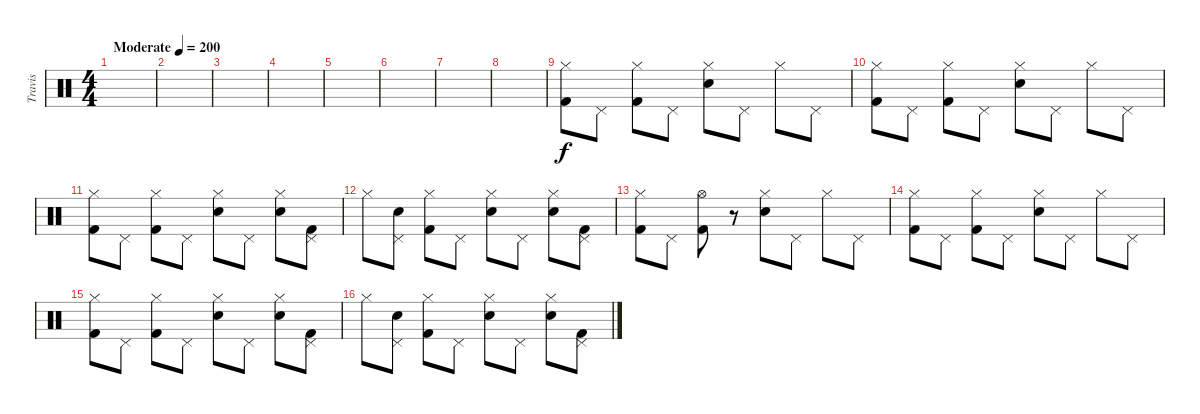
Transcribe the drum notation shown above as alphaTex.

\track ("Travis" "Travis") {instrument percussion}
\staff {score}
\articulation defaults
\ts (4 4)
\tempo (200 "Moderate")
\clef neutral
\ks c
|
|
|
|
|
|
|
|
("Kick (hit) 2" "Hi-Hat (closed)").8 "Pedal Hi-Hat (hit)".8 ("Kick (hit) 2" "Hi-Hat (closed)").8 "Pedal Hi-Hat (hit)".8 ("Snare (hit) 2" "Hi-Hat (closed)").8 "Pedal Hi-Hat (hit)".8 "Hi-Hat (closed)".8 "Pedal Hi-Hat (hit)".8 |
("Kick (hit) 2" "Hi-Hat (closed)").8 "Pedal Hi-Hat (hit)".8 ("Kick (hit) 2" "Hi-Hat (closed)").8 "Pedal Hi-Hat (hit)".8 ("Snare (hit) 2" "Hi-Hat (closed)").8 "Pedal Hi-Hat (hit)".8 "Hi-Hat (closed)".8 "Pedal Hi-Hat (hit)".8 |
("Kick (hit) 2" "Hi-Hat (closed)").8 "Pedal Hi-Hat (hit)".8 ("Kick (hit) 2" "Hi-Hat (closed)").8 "Pedal Hi-Hat (hit)".8 ("Snare (hit) 2" "Hi-Hat (closed)").8 "Pedal Hi-Hat (hit)".8 ("Snare (hit) 2" "Hi-Hat (closed)").8 ("Kick (hit) 2" "Pedal Hi-Hat (hit)").8 |
"Hi-Hat (closed)".8 ("Snare (hit) 2" "Pedal Hi-Hat (hit)").8 ("Kick (hit) 2" "Hi-Hat (closed)").8 "Pedal Hi-Hat (hit)".8 ("Snare (hit) 2" "Hi-Hat (closed)").8 "Pedal Hi-Hat (hit)".8 ("Snare (hit) 2" "Hi-Hat (closed)").8 ("Kick (hit) 2" "Pedal Hi-Hat (hit)").8 |
("Kick (hit) 2" "Hi-Hat (closed)").8 "Pedal Hi-Hat (hit)".8 ("Kick (hit) 2" "Hi-Hat (open)").8 r.8 ("Snare (hit) 2" "Hi-Hat (closed)").8 "Pedal Hi-Hat (hit)".8 "Hi-Hat (closed)".8 "Pedal Hi-Hat (hit)".8 |
("Kick (hit) 2" "Hi-Hat (closed)").8 "Pedal Hi-Hat (hit)".8 ("Kick (hit) 2" "Hi-Hat (closed)").8 "Pedal Hi-Hat (hit)".8 ("Snare (hit) 2" "Hi-Hat (closed)").8 "Pedal Hi-Hat (hit)".8 "Hi-Hat (closed)".8 "Pedal Hi-Hat (hit)".8 |
("Kick (hit) 2" "Hi-Hat (closed)").8 "Pedal Hi-Hat (hit)".8 ("Kick (hit) 2" "Hi-Hat (closed)").8 "Pedal Hi-Hat (hit)".8 ("Snare (hit) 2" "Hi-Hat (closed)").8 "Pedal Hi-Hat (hit)".8 ("Snare (hit) 2" "Hi-Hat (closed)").8 ("Kick (hit) 2" "Pedal Hi-Hat (hit)").8 |
"Hi-Hat (closed)".8 ("Snare (hit) 2" "Pedal Hi-Hat (hit)").8 ("Kick (hit) 2" "Hi-Hat (closed)").8 "Pedal Hi-Hat (hit)".8 ("Snare (hit) 2" "Hi-Hat (closed)").8 "Pedal Hi-Hat (hit)".8 ("Snare (hit) 2" "Hi-Hat (closed)").8 ("Kick (hit) 2" "Pedal Hi-Hat (hit)").8
